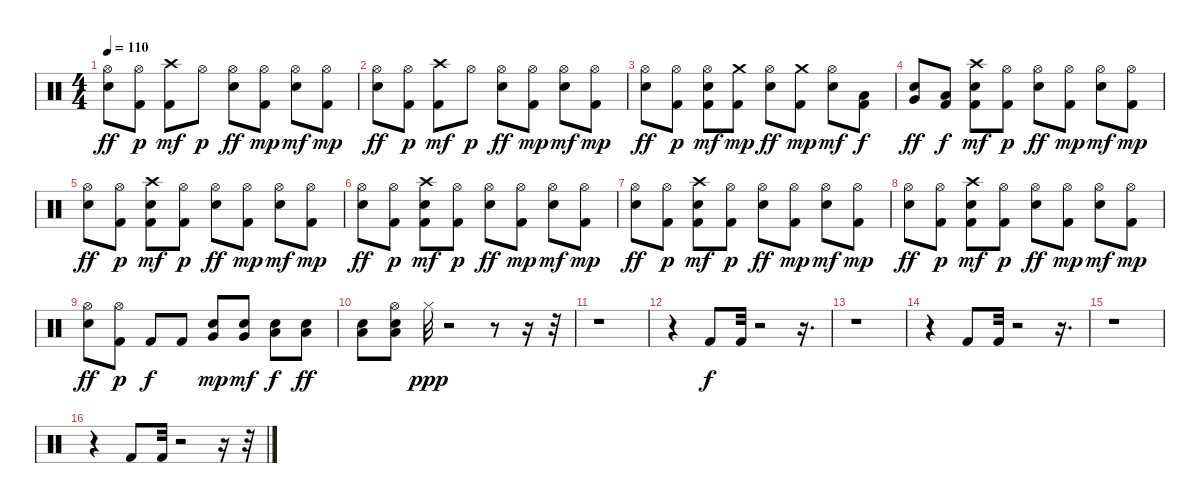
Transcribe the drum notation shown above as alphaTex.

\track "" {instrument percussion}
\staff {score}
\articulation defaults
\ts (4 4)
\tempo 110
\clef neutral
\ks c
("Electric Snare (hit)" "Hi-Hat (open)").8{dy ff} ("Kick (hit) 2" "Hi-Hat (open)").8{dy p} ("Kick (hit) 2" "Crash high (hit)").8{dy mf} "Hi-Hat (open)".8{dy p} ("Electric Snare (hit)" "Hi-Hat (open)").8{dy ff} ("Kick (hit) 2" "Hi-Hat (open)").8{dy mp} ("Electric Snare (hit)" "Hi-Hat (open)").8{dy mf} ("Kick (hit) 2" "Hi-Hat (open)").8{dy mp} |
("Electric Snare (hit)" "Hi-Hat (open)").8{dy ff} ("Kick (hit) 2" "Hi-Hat (open)").8{dy p} ("Kick (hit) 2" "Crash high (hit)").8{dy mf} "Hi-Hat (open)".8{dy p} ("Electric Snare (hit)" "Hi-Hat (open)").8{dy ff} ("Kick (hit) 2" "Hi-Hat (open)").8{dy mp} ("Electric Snare (hit)" "Hi-Hat (open)").8{dy mf} ("Kick (hit) 2" "Hi-Hat (open)").8{dy mp} |
("Electric Snare (hit)" "Hi-Hat (open)").8{dy ff} ("Kick (hit) 2" "Hi-Hat (open)").8{dy p} ("Kick (hit) 2" "Electric Snare (hit)" "Hi-Hat (open)").8{dy mf} ("Kick (hit) 2" "Crash medium (hit)").8{dy mp} ("Electric Snare (hit)" "Hi-Hat (open)").8{dy ff} ("Kick (hit) 2" "Crash medium (hit)").8{dy mp} ("Electric Snare (hit)" "Hi-Hat (open)").8{dy mf} ("Kick (hit) 2" "Low Tom (hit)").8{dy f} |
("Electric Snare (hit)" "Very Low Tom (hit)").8{dy ff} ("Kick (hit) 2" "Low Floor Tom (hit)").8{dy f} ("Kick (hit) 2" "Electric Snare (hit)" "Crash high (hit)").8{dy mf} ("Kick (hit) 2" "Hi-Hat (open)").8{dy p} ("Electric Snare (hit)" "Hi-Hat (open)").8{dy ff} ("Kick (hit) 2" "Hi-Hat (open)").8{dy mp} ("Electric Snare (hit)" "Hi-Hat (open)").8{dy mf} ("Kick (hit) 2" "Hi-Hat (open)").8{dy mp} |
("Electric Snare (hit)" "Hi-Hat (open)").8{dy ff} ("Kick (hit) 2" "Hi-Hat (open)").8{dy p} ("Kick (hit) 2" "Electric Snare (hit)" "Crash high (hit)").8{dy mf} ("Kick (hit) 2" "Hi-Hat (open)").8{dy p} ("Electric Snare (hit)" "Hi-Hat (open)").8{dy ff} ("Kick (hit) 2" "Hi-Hat (open)").8{dy mp} ("Electric Snare (hit)" "Hi-Hat (open)").8{dy mf} ("Kick (hit) 2" "Hi-Hat (open)").8{dy mp} |
("Electric Snare (hit)" "Hi-Hat (open)").8{dy ff} ("Kick (hit) 2" "Hi-Hat (open)").8{dy p} ("Kick (hit) 2" "Electric Snare (hit)" "Crash high (hit)").8{dy mf} ("Kick (hit) 2" "Hi-Hat (open)").8{dy p} ("Electric Snare (hit)" "Hi-Hat (open)").8{dy ff} ("Kick (hit) 2" "Hi-Hat (open)").8{dy mp} ("Electric Snare (hit)" "Hi-Hat (open)").8{dy mf} ("Kick (hit) 2" "Hi-Hat (open)").8{dy mp} |
("Electric Snare (hit)" "Hi-Hat (open)").8{dy ff} ("Kick (hit) 2" "Hi-Hat (open)").8{dy p} ("Kick (hit) 2" "Electric Snare (hit)" "Crash high (hit)").8{dy mf} ("Kick (hit) 2" "Hi-Hat (open)").8{dy p} ("Electric Snare (hit)" "Hi-Hat (open)").8{dy ff} ("Kick (hit) 2" "Hi-Hat (open)").8{dy mp} ("Electric Snare (hit)" "Hi-Hat (open)").8{dy mf} ("Kick (hit) 2" "Hi-Hat (open)").8{dy mp} |
("Electric Snare (hit)" "Hi-Hat (open)").8{dy ff} ("Kick (hit) 2" "Hi-Hat (open)").8{dy p} ("Kick (hit) 2" "Electric Snare (hit)" "Crash high (hit)").8{dy mf} ("Kick (hit) 2" "Hi-Hat (open)").8{dy p} ("Electric Snare (hit)" "Hi-Hat (open)").8{dy ff} ("Kick (hit) 2" "Hi-Hat (open)").8{dy mp} ("Electric Snare (hit)" "Hi-Hat (open)").8{dy mf} ("Kick (hit) 2" "Hi-Hat (open)").8{dy mp} |
("Electric Snare (hit)" "Hi-Hat (open)").8{dy ff} ("Kick (hit) 2" "Hi-Hat (open)").8{dy p} "Kick (hit) 2".8{dy f} "Kick (hit) 2".8 ("Electric Snare (hit)" "Very Low Tom (hit)").8{dy mp} ("Electric Snare (hit)" "Very Low Tom (hit)").8{dy mf} ("Electric Snare (hit)" "Low Floor Tom (hit)").8{dy f} ("Electric Snare (hit)" "Low Floor Tom (hit)").8{dy ff} |
("Electric Snare (hit)" "Low Floor Tom (hit)").8 ("Electric Snare (hit)" "Low Floor Tom (hit)" "Hi-Hat (open)").8 "Hi-Hat (closed)".32{dy ppp} r.2 r.8 r.16 r.32 |
r.1 |
r.4 "Kick (hit) 2".8{dy f} "Kick (hit) 2".32 r.2 r.16{d} |
r.1 |
r.4 "Kick (hit) 2".8 "Kick (hit) 2".32 r.2 r.16{d} |
r.1 |
r.4 "Kick (hit) 2".8 "Kick (hit) 2".32 r.2 r.16 r.32
